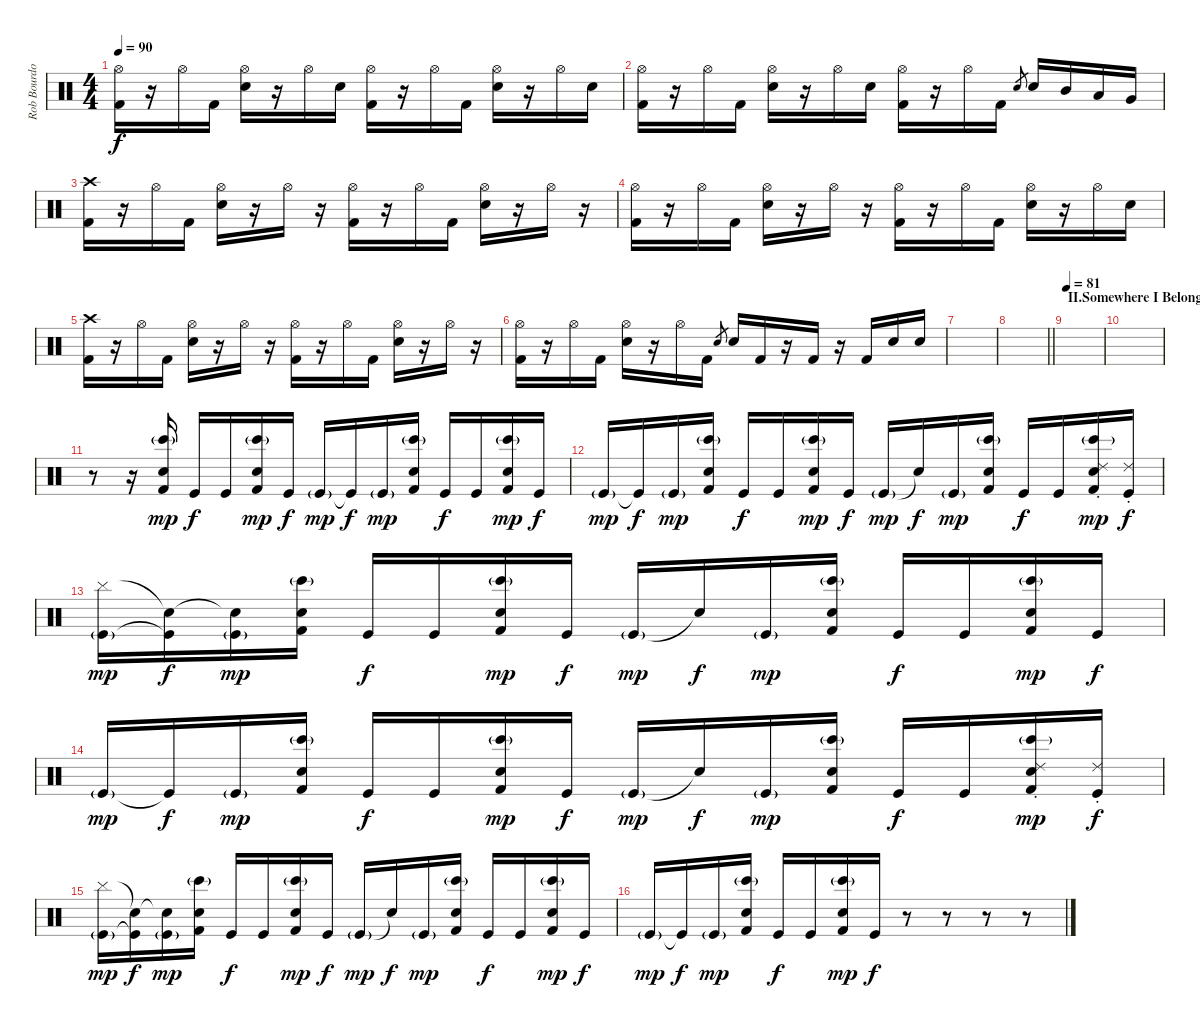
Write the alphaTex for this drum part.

\track ("Rob Bourdon - Drums" "Rob Bourdo") {instrument percussion}
\staff {score}
\articulation defaults
\ts (4 4)
\tempo 90
\clef neutral
\ks c
("Hi-Hat (open)" "Kick (hit) 2").16{dy f} r.16 "Hi-Hat (open)".16 "Kick (hit) 2".16 ("Hi-Hat (open)" "Electric Snare (hit)").16 r.16 "Hi-Hat (open)".16 "Electric Snare (hit)".16 ("Hi-Hat (open)" "Kick (hit) 2").16 r.16 "Hi-Hat (open)".16 "Kick (hit) 2".16 ("Hi-Hat (open)" "Electric Snare (hit)").16 r.16 "Hi-Hat (open)".16 "Electric Snare (hit)".16 |
("Hi-Hat (open)" "Kick (hit) 2").16 r.16 "Hi-Hat (open)".16 "Kick (hit) 2".16 ("Hi-Hat (open)" "Electric Snare (hit)").16 r.16 "Hi-Hat (open)".16 "Electric Snare (hit)".16 ("Hi-Hat (open)" "Kick (hit) 2").16 r.16 "Hi-Hat (open)".16 "Kick (hit) 2".16 "Electric Snare (hit)".8{gr} "Electric Snare (hit)".16 "Mid Tom (hit)".16 "Low Tom (hit)".16 "Very Low Tom (hit)".16 |
("Crash high (hit)" "Kick (hit) 2").16 r.16 "Hi-Hat (open)".16 "Kick (hit) 2".16 ("Hi-Hat (open)" "Electric Snare (hit)").16 r.16 "Hi-Hat (open)".16 r.16 ("Hi-Hat (open)" "Kick (hit) 2").16 r.16 "Hi-Hat (open)".16 "Kick (hit) 2".16 ("Hi-Hat (open)" "Electric Snare (hit)").16 r.16 "Hi-Hat (open)".16 r.16 |
("Hi-Hat (open)" "Kick (hit) 2").16 r.16 "Hi-Hat (open)".16 "Kick (hit) 2".16 ("Hi-Hat (open)" "Electric Snare (hit)").16 r.16 "Hi-Hat (open)".16 r.16 ("Hi-Hat (open)" "Kick (hit) 2").16 r.16 "Hi-Hat (open)".16 "Kick (hit) 2".16 ("Hi-Hat (open)" "Electric Snare (hit)").16 r.16 "Hi-Hat (open)".16 "Electric Snare (hit)".16 |
("Crash high (hit)" "Kick (hit) 2").16 r.16 "Hi-Hat (open)".16 "Kick (hit) 2".16 ("Hi-Hat (open)" "Electric Snare (hit)").16 r.16 "Hi-Hat (open)".16 r.16 ("Hi-Hat (open)" "Kick (hit) 2").16 r.16 "Hi-Hat (open)".16 "Kick (hit) 2".16 ("Hi-Hat (open)" "Electric Snare (hit)").16 r.16 "Hi-Hat (open)".16 r.16 |
("Hi-Hat (open)" "Kick (hit) 2").16 r.16 "Hi-Hat (open)".16 "Kick (hit) 2".16 ("Hi-Hat (open)" "Electric Snare (hit)").16 r.16 "Hi-Hat (open)".16 "Kick (hit) 2".16 "Electric Snare (hit)".8{gr} "Electric Snare (hit)".16 "Kick (hit) 2".16 r.16 "Kick (hit) 2".16 r.16 "Kick (hit) 2".16 "Electric Snare (hit)".16 "Electric Snare (hit)".16 |
|
\barLineRight lightlight
|
\section ("" "II.Somewhere I Belong")
\tempo 81
|
|
r.8{volume 10} r.16 ("Bongo High (hit)"{g} "Snare (hit) 2" "Kick (hit) 2").16{dy mp volume 7 balance 8} "Kick (hit)".16{dy f balance 16} "Kick (hit)".16{balance 0} ("Bongo High (hit)"{g} "Snare (hit) 2" "Kick (hit) 2").16{dy mp balance 8} "Kick (hit)".16{dy f balance 16} "Kick (hit)"{g}.16{dy mp} "Kick (hit)"{t}.16{dy f} "Kick (hit)"{g}.16{dy mp balance 0} ("Bongo High (hit)"{g} "Snare (hit) 2" "Kick (hit) 2").16{balance 8} "Kick (hit)".16{dy f balance 16} "Kick (hit)".16{balance 0} ("Bongo High (hit)"{g} "Snare (hit) 2" "Kick (hit) 2").16{dy mp balance 8} "Kick (hit)".16{dy f} |
"Kick (hit)"{g}.16{dy mp volume 10 balance 16} "Kick (hit)"{t}.16{dy f} "Kick (hit)"{g}.16{dy mp balance 0} ("Bongo High (hit)"{g} "Snare (hit) 2" "Kick (hit) 2").16{balance 8} "Kick (hit)".16{dy f balance 16} "Kick (hit)".16{balance 0} ("Bongo High (hit)"{g} "Snare (hit) 2" "Kick (hit) 2").16{dy mp balance 8} "Kick (hit)".16{dy f} "Kick (hit)"{g}.16{dy mp balance 16} "Snare (hit)"{t}.16{dy f} "Kick (hit)"{g}.16{dy mp balance 0} ("Bongo High (hit)"{g} "Snare (hit) 2" "Kick (hit) 2").16{balance 8} "Kick (hit)".16{dy f balance 16} "Kick (hit)".16{balance 0} ("Ride (choke) 2" "Bongo High (hit)"{g} "Snare (hit) 2" "Kick (hit) 2").16{dy mp balance 8} ("Ride (choke) 2" "Kick (hit)").16{dy f} |
("Cymbal (hit)" "Kick (hit)"{g}).16{dy mp volume 10 balance 16} ("Snare (hit)"{t} "Kick (hit)"{t}).16{dy f} ("Snare (hit)"{t} "Kick (hit)"{g}).16{dy mp balance 0} ("Bongo High (hit)"{g} "Snare (hit) 2" "Kick (hit) 2").16{balance 8} "Kick (hit)".16{dy f balance 16} "Kick (hit)".16{balance 0} ("Bongo High (hit)"{g} "Snare (hit) 2" "Kick (hit) 2").16{dy mp balance 8} "Kick (hit)".16{dy f} "Kick (hit)"{g}.16{dy mp balance 16} "Snare (hit)"{t}.16{dy f} "Kick (hit)"{g}.16{dy mp balance 0} ("Bongo High (hit)"{g} "Snare (hit) 2" "Kick (hit) 2").16{balance 8} "Kick (hit)".16{dy f balance 16} "Kick (hit)".16{balance 0} ("Bongo High (hit)"{g} "Snare (hit) 2" "Kick (hit) 2").16{dy mp balance 8} "Kick (hit)".16{dy f} |
"Kick (hit)"{g}.16{dy mp volume 10 balance 16} "Kick (hit)"{t}.16{dy f} "Kick (hit)"{g}.16{dy mp balance 0} ("Bongo High (hit)"{g} "Snare (hit) 2" "Kick (hit) 2").16{balance 8} "Kick (hit)".16{dy f balance 16} "Kick (hit)".16{balance 0} ("Bongo High (hit)"{g} "Snare (hit) 2" "Kick (hit) 2").16{dy mp balance 8} "Kick (hit)".16{dy f} "Kick (hit)"{g}.16{dy mp balance 16} "Snare (hit)"{t}.16{dy f} "Kick (hit)"{g}.16{dy mp balance 0} ("Bongo High (hit)"{g} "Snare (hit) 2" "Kick (hit) 2").16{balance 8} "Kick (hit)".16{dy f balance 16} "Kick (hit)".16{balance 0} ("Ride (choke) 2" "Bongo High (hit)"{g} "Snare (hit) 2" "Kick (hit) 2").16{dy mp balance 8} ("Ride (choke) 2" "Kick (hit)").16{dy f} |
("Cymbal (hit)" "Kick (hit)"{g}).16{dy mp volume 10 balance 16} ("Snare (hit)"{t} "Kick (hit)"{t}).16{dy f} ("Snare (hit)"{t} "Kick (hit)"{g}).16{dy mp balance 0} ("Bongo High (hit)"{g} "Snare (hit) 2" "Kick (hit) 2").16{balance 8} "Kick (hit)".16{dy f balance 16} "Kick (hit)".16{balance 0} ("Bongo High (hit)"{g} "Snare (hit) 2" "Kick (hit) 2").16{dy mp balance 8} "Kick (hit)".16{dy f} "Kick (hit)"{g}.16{dy mp balance 16} "Snare (hit)"{t}.16{dy f} "Kick (hit)"{g}.16{dy mp balance 0} ("Bongo High (hit)"{g} "Snare (hit) 2" "Kick (hit) 2").16{balance 8} "Kick (hit)".16{dy f balance 16} "Kick (hit)".16{balance 0} ("Bongo High (hit)"{g} "Snare (hit) 2" "Kick (hit) 2").16{dy mp balance 8} "Kick (hit)".16{dy f} |
"Kick (hit)"{g}.16{dy mp volume 10 balance 16} "Kick (hit)"{t}.16{dy f} "Kick (hit)"{g}.16{dy mp balance 0} ("Bongo High (hit)"{g} "Snare (hit) 2" "Kick (hit) 2").16{balance 8} "Kick (hit)".16{dy f balance 16} "Kick (hit)".16{balance 0} ("Bongo High (hit)"{g} "Snare (hit) 2" "Kick (hit) 2").16{dy mp balance 8} "Kick (hit)".16{dy f} r.8 r.8 r.8 r.8
